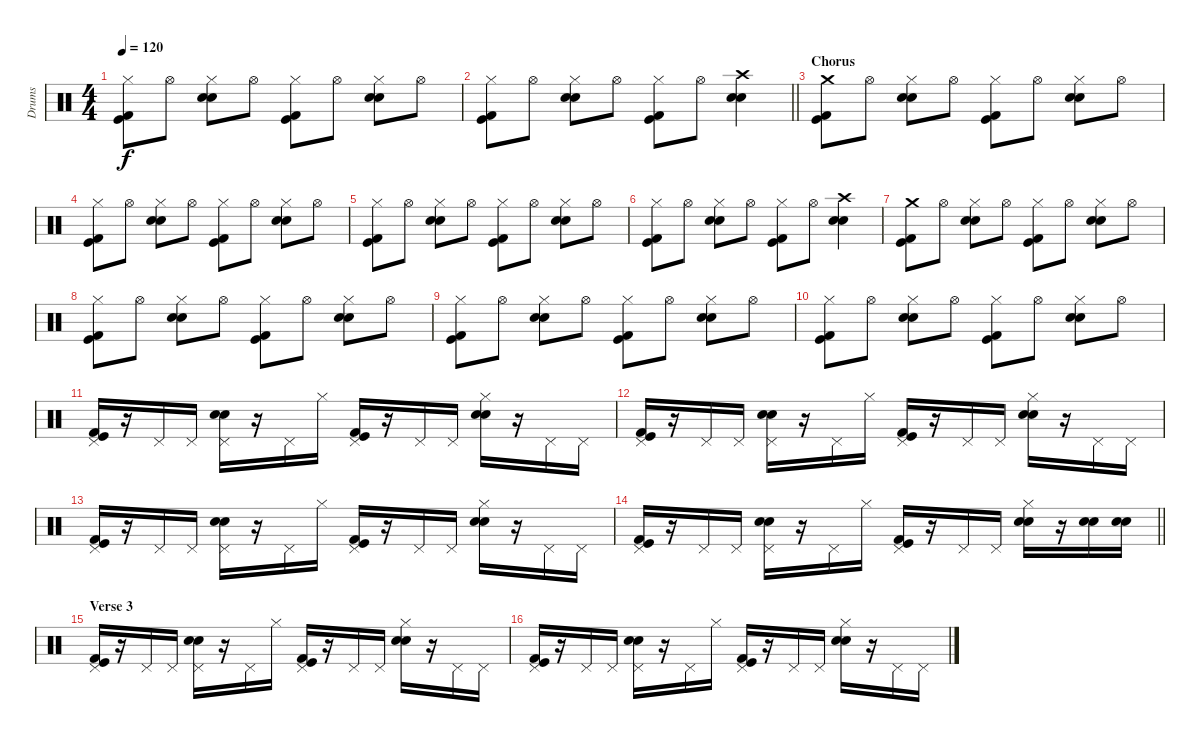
\track ("Drums" "Drums") {instrument percussion}
\staff {score}
\articulation defaults
\ts (4 4)
\tempo 120
\clef neutral
\ks c
("Hi-Hat (closed)" "Kick (hit) 2" "Kick (hit)").8{dy f} "Hi-Hat (open)".8 ("Hi-Hat (closed)" "Electric Snare (hit)" "Electric Snare (hit)").8 "Hi-Hat (open)".8 ("Hi-Hat (closed)" "Kick (hit) 2" "Kick (hit)").8 "Hi-Hat (open)".8 ("Hi-Hat (closed)" "Electric Snare (hit)" "Electric Snare (hit)").8 "Hi-Hat (open)".8 |
\barLineRight lightlight
("Hi-Hat (closed)" "Kick (hit) 2" "Kick (hit)").8 "Hi-Hat (open)".8 ("Hi-Hat (closed)" "Electric Snare (hit)" "Electric Snare (hit)").8 "Hi-Hat (open)".8 ("Hi-Hat (closed)" "Kick (hit) 2" "Kick (hit)").8 "Hi-Hat (open)".8 ("Crash high (hit)" "Electric Snare (hit)" "Electric Snare (hit)").4 |
\section ("" "Chorus")
("Crash medium (hit)" "Kick (hit) 2" "Kick (hit)").8 "Hi-Hat (open)".8 ("Hi-Hat (closed)" "Electric Snare (hit)" "Electric Snare (hit)").8 "Hi-Hat (open)".8 ("Hi-Hat (closed)" "Kick (hit) 2" "Kick (hit)").8 "Hi-Hat (open)".8 ("Hi-Hat (closed)" "Electric Snare (hit)" "Electric Snare (hit)").8 "Hi-Hat (open)".8 |
("Hi-Hat (closed)" "Kick (hit) 2" "Kick (hit)").8 "Hi-Hat (open)".8 ("Hi-Hat (closed)" "Electric Snare (hit)" "Electric Snare (hit)").8 "Hi-Hat (open)".8 ("Hi-Hat (closed)" "Kick (hit) 2" "Kick (hit)").8 "Hi-Hat (open)".8 ("Hi-Hat (closed)" "Electric Snare (hit)" "Electric Snare (hit)").8 "Hi-Hat (open)".8 |
("Hi-Hat (closed)" "Kick (hit) 2" "Kick (hit)").8 "Hi-Hat (open)".8 ("Hi-Hat (closed)" "Electric Snare (hit)" "Electric Snare (hit)").8 "Hi-Hat (open)".8 ("Hi-Hat (closed)" "Kick (hit) 2" "Kick (hit)").8 "Hi-Hat (open)".8 ("Hi-Hat (closed)" "Electric Snare (hit)" "Electric Snare (hit)").8 "Hi-Hat (open)".8 |
("Hi-Hat (closed)" "Kick (hit) 2" "Kick (hit)").8 "Hi-Hat (open)".8 ("Hi-Hat (closed)" "Electric Snare (hit)" "Electric Snare (hit)").8 "Hi-Hat (open)".8 ("Hi-Hat (closed)" "Kick (hit) 2" "Kick (hit)").8 "Hi-Hat (open)".8 ("Crash high (hit)" "Electric Snare (hit)" "Electric Snare (hit)").4 |
("Crash medium (hit)" "Kick (hit) 2" "Kick (hit)").8 "Hi-Hat (open)".8 ("Hi-Hat (closed)" "Electric Snare (hit)" "Electric Snare (hit)").8 "Hi-Hat (open)".8 ("Hi-Hat (closed)" "Kick (hit) 2" "Kick (hit)").8 "Hi-Hat (open)".8 ("Hi-Hat (closed)" "Electric Snare (hit)" "Electric Snare (hit)").8 "Hi-Hat (open)".8 |
("Hi-Hat (closed)" "Kick (hit) 2" "Kick (hit)").8 "Hi-Hat (open)".8 ("Hi-Hat (closed)" "Electric Snare (hit)" "Electric Snare (hit)").8 "Hi-Hat (open)".8 ("Hi-Hat (closed)" "Kick (hit) 2" "Kick (hit)").8 "Hi-Hat (open)".8 ("Hi-Hat (closed)" "Electric Snare (hit)" "Electric Snare (hit)").8 "Hi-Hat (open)".8 |
("Hi-Hat (closed)" "Kick (hit) 2" "Kick (hit)").8 "Hi-Hat (open)".8 ("Hi-Hat (closed)" "Electric Snare (hit)" "Electric Snare (hit)").8 "Hi-Hat (open)".8 ("Hi-Hat (closed)" "Kick (hit) 2" "Kick (hit)").8 "Hi-Hat (open)".8 ("Hi-Hat (closed)" "Electric Snare (hit)" "Electric Snare (hit)").8 "Hi-Hat (open)".8 |
("Hi-Hat (closed)" "Kick (hit) 2" "Kick (hit)").8 "Hi-Hat (open)".8 ("Hi-Hat (closed)" "Electric Snare (hit)" "Electric Snare (hit)").8 "Hi-Hat (open)".8 ("Hi-Hat (closed)" "Kick (hit) 2" "Kick (hit)").8 "Hi-Hat (open)".8 ("Hi-Hat (closed)" "Electric Snare (hit)" "Electric Snare (hit)").8 "Hi-Hat (open)".8 |
("Pedal Hi-Hat (hit)" "Kick (hit)" "Kick (hit) 2").16 r.16 "Pedal Hi-Hat (hit)".16 "Pedal Hi-Hat (hit)".16 ("Pedal Hi-Hat (hit)" "Electric Snare (hit)" "Electric Snare (hit)").16 r.16 "Pedal Hi-Hat (hit)".16 "Hi-Hat (closed)".16 ("Pedal Hi-Hat (hit)" "Kick (hit)" "Kick (hit) 2").16 r.16 "Pedal Hi-Hat (hit)".16 "Pedal Hi-Hat (hit)".16 ("Hi-Hat (closed)" "Electric Snare (hit)" "Electric Snare (hit)").16 r.16 "Pedal Hi-Hat (hit)".16 "Pedal Hi-Hat (hit)".16 |
("Pedal Hi-Hat (hit)" "Kick (hit)" "Kick (hit) 2").16 r.16 "Pedal Hi-Hat (hit)".16 "Pedal Hi-Hat (hit)".16 ("Pedal Hi-Hat (hit)" "Electric Snare (hit)" "Electric Snare (hit)").16 r.16 "Pedal Hi-Hat (hit)".16 "Hi-Hat (closed)".16 ("Pedal Hi-Hat (hit)" "Kick (hit)" "Kick (hit) 2").16 r.16 "Pedal Hi-Hat (hit)".16 "Pedal Hi-Hat (hit)".16 ("Hi-Hat (closed)" "Electric Snare (hit)" "Electric Snare (hit)").16 r.16 "Pedal Hi-Hat (hit)".16 "Pedal Hi-Hat (hit)".16 |
("Pedal Hi-Hat (hit)" "Kick (hit)" "Kick (hit) 2").16 r.16 "Pedal Hi-Hat (hit)".16 "Pedal Hi-Hat (hit)".16 ("Pedal Hi-Hat (hit)" "Electric Snare (hit)" "Electric Snare (hit)").16 r.16 "Pedal Hi-Hat (hit)".16 "Hi-Hat (closed)".16 ("Pedal Hi-Hat (hit)" "Kick (hit)" "Kick (hit) 2").16 r.16 "Pedal Hi-Hat (hit)".16 "Pedal Hi-Hat (hit)".16 ("Hi-Hat (closed)" "Electric Snare (hit)" "Electric Snare (hit)").16 r.16 "Pedal Hi-Hat (hit)".16 "Pedal Hi-Hat (hit)".16 |
\barLineRight lightlight
("Pedal Hi-Hat (hit)" "Kick (hit)" "Kick (hit) 2").16 r.16 "Pedal Hi-Hat (hit)".16 "Pedal Hi-Hat (hit)".16 ("Pedal Hi-Hat (hit)" "Electric Snare (hit)" "Electric Snare (hit)").16 r.16 "Pedal Hi-Hat (hit)".16 "Hi-Hat (closed)".16 ("Pedal Hi-Hat (hit)" "Kick (hit)" "Kick (hit) 2").16 r.16 "Pedal Hi-Hat (hit)".16 "Pedal Hi-Hat (hit)".16 ("Hi-Hat (closed)" "Electric Snare (hit)" "Electric Snare (hit)").16 r.16 ("Electric Snare (hit)" "Electric Snare (hit)").16 ("Electric Snare (hit)" "Electric Snare (hit)").16 |
\section ("" "Verse 3")
("Pedal Hi-Hat (hit)" "Kick (hit)" "Kick (hit) 2").16 r.16 "Pedal Hi-Hat (hit)".16 "Pedal Hi-Hat (hit)".16 ("Pedal Hi-Hat (hit)" "Electric Snare (hit)" "Electric Snare (hit)").16 r.16 "Pedal Hi-Hat (hit)".16 "Hi-Hat (closed)".16 ("Pedal Hi-Hat (hit)" "Kick (hit)" "Kick (hit) 2").16 r.16 "Pedal Hi-Hat (hit)".16 "Pedal Hi-Hat (hit)".16 ("Hi-Hat (closed)" "Electric Snare (hit)" "Electric Snare (hit)").16 r.16 "Pedal Hi-Hat (hit)".16 "Pedal Hi-Hat (hit)".16 |
("Pedal Hi-Hat (hit)" "Kick (hit)" "Kick (hit) 2").16 r.16 "Pedal Hi-Hat (hit)".16 "Pedal Hi-Hat (hit)".16 ("Pedal Hi-Hat (hit)" "Electric Snare (hit)" "Electric Snare (hit)").16 r.16 "Pedal Hi-Hat (hit)".16 "Hi-Hat (closed)".16 ("Pedal Hi-Hat (hit)" "Kick (hit)" "Kick (hit) 2").16 r.16 "Pedal Hi-Hat (hit)".16 "Pedal Hi-Hat (hit)".16 ("Hi-Hat (closed)" "Electric Snare (hit)" "Electric Snare (hit)").16 r.16 "Pedal Hi-Hat (hit)".16 "Pedal Hi-Hat (hit)".16
